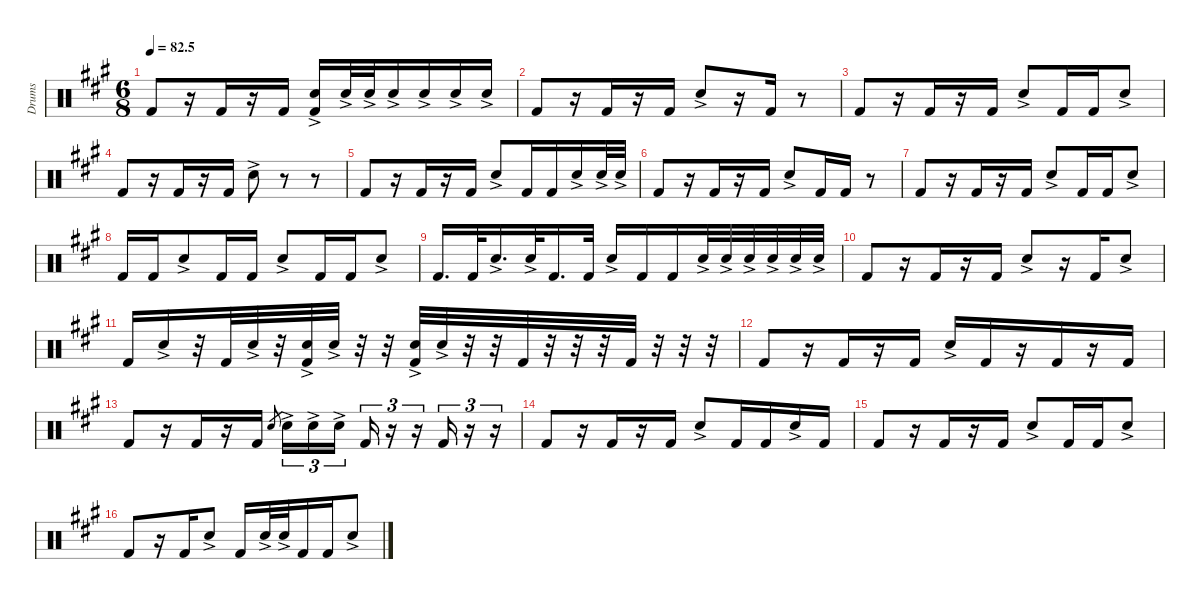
\defaultSystemsLayout 4
\hideDynamics
\bracketExtendMode nobrackets
\otherSystemsTrackNameOrientation horizontal
\track ("F&S" "Drums") {instrument percussion}
\staff {score}
\articulation defaults
\ts (6 8)
\tempo
82.5
\accidentals auto
\clef neutral
\ottava regular
\simile none
\scale
0.333333
\ks a "Kick (hit) 2"{acc forcenatural}.8{dy f}
r.16 "Kick (hit) 2"{acc forcenatural}.16 r.16 "Kick (hit) 2"{acc forcenatural}.16 ("Snare (hit) 2"{ac acc forcenatural} "Kick (hit) 2"{acc forcenatural}).16 "Snare (hit) 2"{ac acc forcenatural}.32 "Snare (hit) 2"{ac acc forcenatural}.32 "Snare (hit) 2"{ac acc forcenatural}.16 "Snare (hit) 2"{ac acc forcenatural}.16 "Snare (hit) 2"{ac acc forcenatural}.16 "Snare (hit) 2"{ac acc forcenatural}.16 |
\scale
0.333333 "Kick (hit) 2"{acc forcenatural}.8 r.16 "Kick (hit) 2"{acc forcenatural}.16 r.16 "Kick (hit) 2"{acc forcenatural}.16 "Snare (hit) 2"{ac acc forcenatural}.8 r.16 "Kick (hit) 2"{acc forcenatural}.16 r.8 |
\scale
0.333333 "Kick (hit) 2"{acc forcenatural}.8 r.16 "Kick (hit) 2"{acc forcenatural}.16 r.16 "Kick (hit) 2"{acc forcenatural}.16 "Snare (hit) 2"{ac acc forcenatural}.8 "Kick (hit) 2"{acc forcenatural}.16 "Kick (hit) 2"{acc forcenatural}.16 "Snare (hit) 2"{ac acc forcenatural}.8 |
\scale
0.333333 "Kick (hit) 2"{acc forcenatural}.8 r.16 "Kick (hit) 2"{acc forcenatural}.16 r.16 "Kick (hit) 2"{acc forcenatural}.16 "Snare (hit) 2"{ac acc forcenatural}.8 r.8 r.8 |
\scale
0.333333 "Kick (hit) 2"{acc forcenatural}.8 r.16 "Kick (hit) 2"{acc forcenatural}.16 r.16 "Kick (hit) 2"{acc forcenatural}.16 "Snare (hit) 2"{ac acc forcenatural}.8 "Kick (hit) 2"{acc forcenatural}.16 "Kick (hit) 2"{acc forcenatural}.16 "Snare (hit) 2"{ac acc forcenatural}.16 "Snare (hit) 2"{ac acc forcenatural}.32 "Snare (hit) 2"{ac acc forcenatural}.32 |
\scale
0.333333 "Kick (hit) 2"{acc forcenatural}.8 r.16 "Kick (hit) 2"{acc forcenatural}.16 r.16 "Kick (hit) 2"{acc forcenatural}.16 "Snare (hit) 2"{ac acc forcenatural}.8 "Kick (hit) 2"{acc forcenatural}.16 "Kick (hit) 2"{acc forcenatural}.16 r.8 |
\scale
0.333333 "Kick (hit) 2"{acc forcenatural}.8 r.16 "Kick (hit) 2"{acc forcenatural}.16 r.16 "Kick (hit) 2"{acc forcenatural}.16 "Snare (hit) 2"{ac acc forcenatural}.8 "Kick (hit) 2"{acc forcenatural}.16 "Kick (hit) 2"{acc forcenatural}.16 "Snare (hit) 2"{ac acc forcenatural}.8 |
\scale
0.333333 "Kick (hit) 2"{acc forcenatural}.16 "Kick (hit) 2"{acc forcenatural}.16 "Snare (hit) 2"{ac acc forcenatural}.8 "Kick (hit) 2"{acc forcenatural}.16 "Kick (hit) 2"{acc forcenatural}.16 "Snare (hit) 2"{ac acc forcenatural}.8 "Kick (hit) 2"{acc forcenatural}.16 "Kick (hit) 2"{acc forcenatural}.16 "Snare (hit) 2"{ac acc forcenatural}.8 |
\scale
0.333333 "Kick (hit) 2"{acc forcenatural}.16{d} "Kick (hit) 2"{acc forcenatural}.32 "Snare (hit) 2"{ac acc forcenatural}.16{d} "Snare (hit) 2"{ac acc forcenatural}.32 "Kick (hit) 2"{acc forcenatural}.16{d} "Kick (hit) 2"{acc forcenatural}.32 "Snare (hit) 2"{ac acc forcenatural}.16 "Kick (hit) 2"{acc forcenatural}.16 "Kick (hit) 2"{acc forcenatural}.16 "Snare (hit) 2"{ac acc forcenatural}.32 "Snare (hit) 2"{ac acc forcenatural}.32 "Snare (hit) 2"{ac acc forcenatural}.32 "Snare (hit) 2"{ac acc forcenatural}.32 "Snare (hit) 2"{ac acc forcenatural}.32 "Snare (hit) 2"{ac acc forcenatural}.32 |
\scale
0.333333 "Kick (hit) 2"{acc forcenatural}.8 r.16 "Kick (hit) 2"{acc forcenatural}.16 r.16 "Kick (hit) 2"{acc forcenatural}.16 "Snare (hit) 2"{ac acc forcenatural}.8 r.16 "Kick (hit) 2"{acc forcenatural}.16 "Snare (hit) 2"{ac acc forcenatural}.8 |
\scale
0.333333 "Kick (hit) 2"{acc forcenatural}.16 "Snare (hit) 2"{ac acc forcenatural}.16 r.32 "Kick (hit) 2"{acc forcenatural}.32 "Snare (hit) 2"{ac acc forcenatural}.32 r.32 ("Snare (hit) 2"{ac acc forcenatural} "Kick (hit) 2"{acc forcenatural}).32 "Snare (hit) 2"{ac acc forcenatural}.32 r.32 r.32 ("Snare (hit) 2"{ac acc forcenatural} "Kick (hit) 2"{acc forcenatural}).32 "Snare (hit) 2"{ac acc forcenatural}.32 r.32 r.32 "Kick (hit) 2"{acc forcenatural}.32 r.32 r.32 r.32 "Kick (hit) 2"{acc forcenatural}.32 r.32 r.32 r.32 |
\scale
0.333333 "Kick (hit) 2"{acc forcenatural}.8 r.16 "Kick (hit) 2"{acc forcenatural}.16 r.16 "Kick (hit) 2"{acc forcenatural}.16 "Snare (hit) 2"{ac acc forcenatural}.16 "Kick (hit) 2"{acc forcenatural}.16 r.16 "Kick (hit) 2"{acc forcenatural}.16 r.16 "Kick (hit) 2"{acc forcenatural}.16 |
\scale
0.333333 "Kick (hit) 2"{acc forcenatural}.8 r.16 "Kick (hit) 2"{acc forcenatural}.16 r.16 "Kick (hit) 2"{acc forcenatural}.16 "Snare (hit) 2"{acc forcenatural}.8{gr} "Snare (hit) 2"{ac acc forcenatural}.16{tu (3 2)} "Snare (hit) 2"{ac acc forcenatural}.16{tu (3 2)} "Snare (hit) 2"{ac acc forcenatural}.16{tu (3 2)} "Kick (hit) 2"{acc forcenatural}.16{tu (3 2)} r.16{tu (3 2)} r.16{tu (3 2)} "Kick (hit) 2"{acc forcenatural}.16{tu (3 2)} r.16{tu (3 2)} r.16{tu (3 2)} |
\scale
0.333333 "Kick (hit) 2"{acc forcenatural}.8 r.16 "Kick (hit) 2"{acc forcenatural}.16 r.16 "Kick (hit) 2"{acc forcenatural}.16 "Snare (hit) 2"{ac acc forcenatural}.8 "Kick (hit) 2"{acc forcenatural}.16 "Kick (hit) 2"{acc forcenatural}.16 "Snare (hit) 2"{ac acc forcenatural}.16 "Kick (hit) 2"{acc forcenatural}.16 |
\scale
0.333333 "Kick (hit) 2"{acc forcenatural}.8 r.16 "Kick (hit) 2"{acc forcenatural}.16 r.16 "Kick (hit) 2"{acc forcenatural}.16 "Snare (hit) 2"{ac acc forcenatural}.8 "Kick (hit) 2"{acc forcenatural}.16 "Kick (hit) 2"{acc forcenatural}.16 "Snare (hit) 2"{ac acc forcenatural}.8 |
\scale
0.333333 "Kick (hit) 2"{acc forcenatural}.8 r.16 "Kick (hit) 2"{acc forcenatural}.16 "Snare (hit) 2"{ac acc forcenatural}.8 "Kick (hit) 2"{acc forcenatural}.16 "Snare (hit) 2"{ac acc forcenatural}.32 "Snare (hit) 2"{ac acc forcenatural}.32 "Kick (hit) 2"{acc forcenatural}.16 "Kick (hit) 2"{acc forcenatural}.16 "Snare (hit) 2"{ac acc forcenatural}.8
